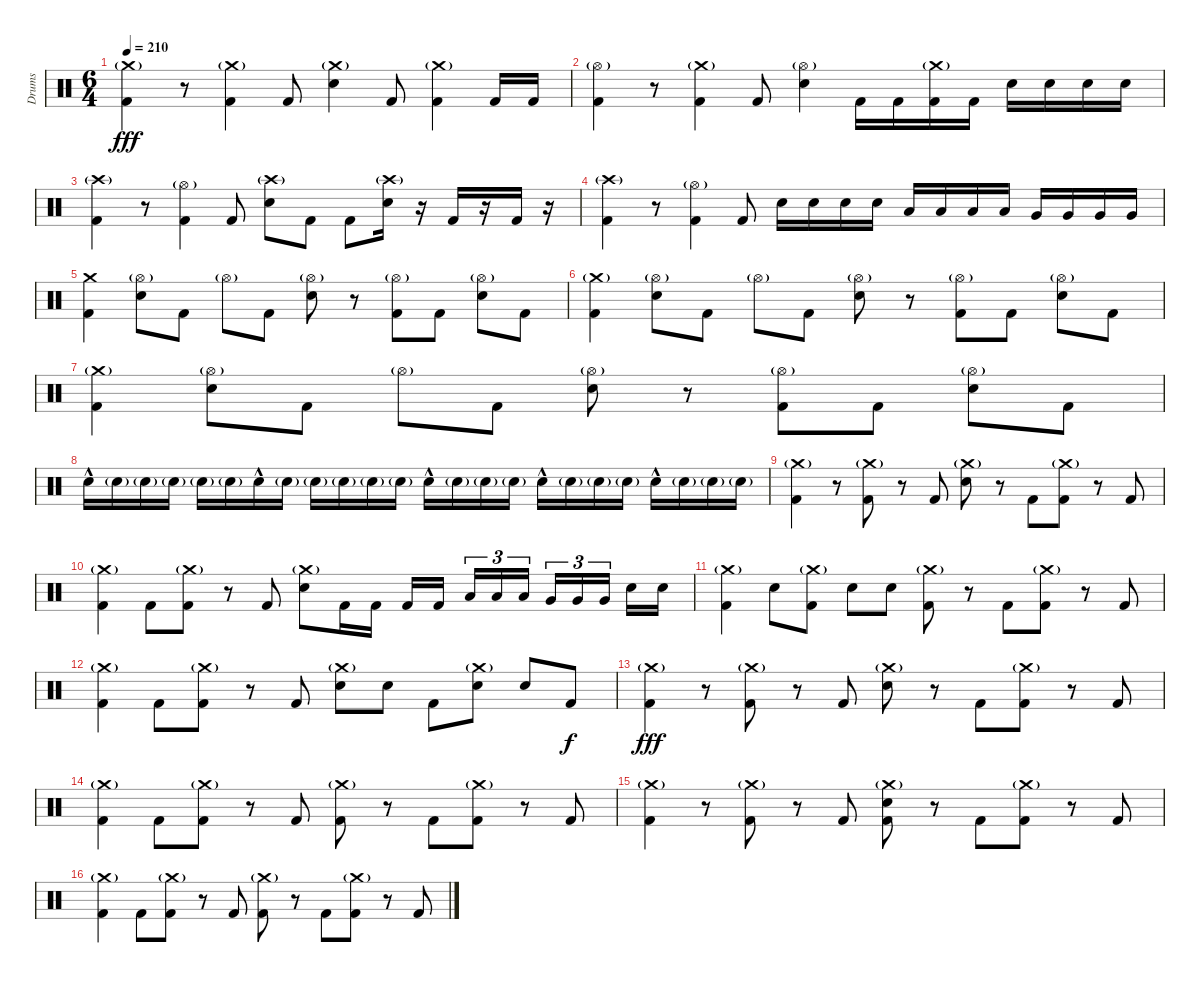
\track ("Drums" "Drums") {instrument percussion}
\staff {score}
\articulation defaults
\ts (6 4)
\tempo 210
\clef neutral
\ks c
("Crash medium (hit)"{g} "Kick (hit) 2").4{dy fff} r.8 ("Crash medium (hit)"{g} "Kick (hit) 2").4 "Kick (hit) 2".8 ("Crash medium (hit)"{g} "Electric Snare (hit)").4 "Kick (hit) 2".8 ("Crash medium (hit)"{g} "Kick (hit) 2").4 "Kick (hit) 2".16 "Kick (hit) 2".16 |
("Hi-Hat (open)"{g} "Kick (hit) 2").4 r.8 ("Crash medium (hit)"{g} "Kick (hit) 2").4 "Kick (hit) 2".8 ("Hi-Hat (open)"{g} "Electric Snare (hit)").4 "Kick (hit) 2".16 "Kick (hit) 2".16 ("Crash medium (hit)"{g} "Kick (hit) 2").16 "Kick (hit) 2".16 "Electric Snare (hit)".16 "Electric Snare (hit)".16 "Electric Snare (hit)".16 "Electric Snare (hit)".16 |
("Crash high (hit)"{g} "Kick (hit) 2").4 r.8 ("Hi-Hat (open)"{g} "Kick (hit) 2").4 "Kick (hit) 2".8 ("Crash high (hit)"{g} "Electric Snare (hit)").8 "Kick (hit) 2".8 "Kick (hit) 2".8 ("Crash high (hit)"{g} "Electric Snare (hit)").16 r.16 "Kick (hit) 2".16 r.16 "Kick (hit) 2".16 r.16 |
("Crash high (hit)"{g} "Kick (hit) 2").4 r.8 ("Hi-Hat (open)"{g} "Kick (hit) 2").4 "Kick (hit) 2".8 "Electric Snare (hit)".16 "Electric Snare (hit)".16 "Electric Snare (hit)".16 "Electric Snare (hit)".16 "Low Tom (hit)".16 "Low Tom (hit)".16 "Low Tom (hit)".16 "Low Tom (hit)".16 "Very Low Tom (hit)".16 "Very Low Tom (hit)".16 "Very Low Tom (hit)".16 "Very Low Tom (hit)".16 |
("Crash medium (hit)" "Kick (hit) 2").4 ("Hi-Hat (open)"{g} "Electric Snare (hit)").8 "Kick (hit) 2".8 "Hi-Hat (open)"{g}.8 "Kick (hit) 2".8 ("Hi-Hat (open)"{g} "Electric Snare (hit)").8 r.8 ("Hi-Hat (open)"{g} "Kick (hit) 2").8 "Kick (hit) 2".8 ("Hi-Hat (open)"{g} "Electric Snare (hit)").8 "Kick (hit) 2".8 |
("Crash medium (hit)"{g} "Kick (hit) 2").4 ("Hi-Hat (open)"{g} "Electric Snare (hit)").8 "Kick (hit) 2".8 "Hi-Hat (open)"{g}.8 "Kick (hit) 2".8 ("Hi-Hat (open)"{g} "Electric Snare (hit)").8 r.8 ("Hi-Hat (open)"{g} "Kick (hit) 2").8 "Kick (hit) 2".8 ("Hi-Hat (open)"{g} "Electric Snare (hit)").8 "Kick (hit) 2".8 |
("Crash medium (hit)"{g} "Kick (hit) 2").4 ("Hi-Hat (open)"{g} "Electric Snare (hit)").8 "Kick (hit) 2".8 "Hi-Hat (open)"{g}.8 "Kick (hit) 2".8 ("Hi-Hat (open)"{g} "Electric Snare (hit)").8 r.8 ("Hi-Hat (open)"{g} "Kick (hit) 2").8 "Kick (hit) 2".8 ("Hi-Hat (open)"{g} "Electric Snare (hit)").8 "Kick (hit) 2".8 |
"Electric Snare (hit)"{hac}.16 "Electric Snare (hit)"{g}.16 "Electric Snare (hit)"{g}.16 "Electric Snare (hit)"{g}.16 "Electric Snare (hit)"{g}.16 "Electric Snare (hit)"{g}.16 "Electric Snare (hit)"{hac}.16 "Electric Snare (hit)"{g}.16 "Electric Snare (hit)"{g}.16 "Electric Snare (hit)"{g}.16 "Electric Snare (hit)"{g}.16 "Electric Snare (hit)"{g}.16 "Electric Snare (hit)"{hac}.16 "Electric Snare (hit)"{g}.16 "Electric Snare (hit)"{g}.16 "Electric Snare (hit)"{g}.16 "Electric Snare (hit)"{hac}.16 "Electric Snare (hit)"{g}.16 "Electric Snare (hit)"{g}.16 "Electric Snare (hit)"{g}.16 "Electric Snare (hit)"{hac}.16 "Electric Snare (hit)"{g}.16 "Electric Snare (hit)"{g}.16 "Electric Snare (hit)"{g}.16 |
("Crash medium (hit)"{g} "Kick (hit) 2").4 r.8 ("Crash medium (hit)"{g} "Kick (hit) 2").8 r.8 "Kick (hit) 2".8 ("Crash medium (hit)"{g} "Electric Snare (hit)").8 r.8 "Kick (hit) 2".8 ("Crash medium (hit)"{g} "Kick (hit) 2").8 r.8 "Kick (hit) 2".8 |
("Crash medium (hit)"{g} "Kick (hit) 2").4 "Kick (hit) 2".8 ("Crash medium (hit)"{g} "Kick (hit) 2").8 r.8 "Kick (hit) 2".8 ("Crash medium (hit)"{g} "Electric Snare (hit)").8 "Kick (hit) 2".16 "Kick (hit) 2".16 "Kick (hit) 2".16 "Kick (hit) 2".16{beam splitsecondary} "Low Tom (hit)".16{tu (3 2)} "Low Tom (hit)".16{tu (3 2)} "Low Tom (hit)".16{tu (3 2) beam splitsecondary} "Very Low Tom (hit)".16{tu (3 2)} "Very Low Tom (hit)".16{tu (3 2)} "Very Low Tom (hit)".16{tu (3 2) beam splitsecondary} "Electric Snare (hit)".16 "Electric Snare (hit)".16 |
("Crash medium (hit)"{g} "Kick (hit) 2").4 "Electric Snare (hit)".8 ("Crash medium (hit)"{g} "Kick (hit) 2").8 "Electric Snare (hit)".8 "Electric Snare (hit)".8 ("Crash medium (hit)"{g} "Kick (hit) 2").8 r.8 "Kick (hit) 2".8 ("Crash medium (hit)"{g} "Kick (hit) 2").8 r.8 "Kick (hit) 2".8 |
("Crash medium (hit)"{g} "Kick (hit) 2").4 "Kick (hit) 2".8 ("Crash medium (hit)"{g} "Kick (hit) 2").8 r.8 "Kick (hit) 2".8 ("Crash medium (hit)"{g} "Electric Snare (hit)").8 "Electric Snare (hit)".8 "Kick (hit) 2".8 ("Crash medium (hit)"{g} "Electric Snare (hit)").8 "Electric Snare (hit)".8 "Kick (hit) 2".8{dy f} |
("Crash medium (hit)"{g} "Kick (hit) 2").4{dy fff} r.8 ("Crash medium (hit)"{g} "Kick (hit) 2").8 r.8 "Kick (hit) 2".8 ("Crash medium (hit)"{g} "Electric Snare (hit)").8 r.8 "Kick (hit) 2".8 ("Crash medium (hit)"{g} "Kick (hit) 2").8 r.8 "Kick (hit) 2".8 |
("Crash medium (hit)"{g} "Kick (hit) 2").4 "Kick (hit) 2".8 ("Crash medium (hit)"{g} "Kick (hit) 2").8 r.8 "Kick (hit) 2".8 ("Crash medium (hit)"{g} "Kick (hit) 2").8 r.8 "Kick (hit) 2".8 ("Crash medium (hit)"{g} "Kick (hit) 2").8 r.8 "Kick (hit) 2".8 |
("Crash medium (hit)"{g} "Kick (hit) 2").4 r.8 ("Crash medium (hit)"{g} "Kick (hit) 2").8 r.8 "Kick (hit) 2".8 ("Crash medium (hit)"{g} "Electric Snare (hit)" "Kick (hit) 2").8 r.8 "Kick (hit) 2".8 ("Crash medium (hit)"{g} "Kick (hit) 2").8 r.8 "Kick (hit) 2".8 |
("Crash medium (hit)"{g} "Kick (hit) 2").4 "Kick (hit) 2".8 ("Crash medium (hit)"{g} "Kick (hit) 2").8 r.8 "Kick (hit) 2".8 ("Crash medium (hit)"{g} "Kick (hit) 2").8 r.8 "Kick (hit) 2".8 ("Crash medium (hit)"{g} "Kick (hit) 2").8 r.8 "Kick (hit) 2".8
